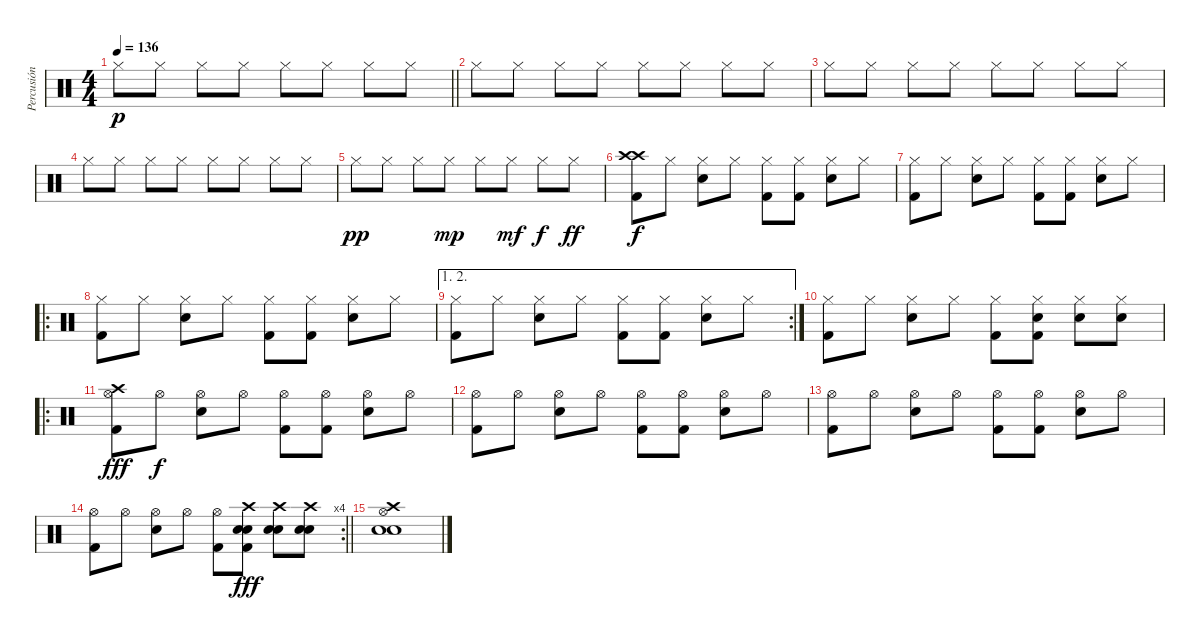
\track ("Percusión" "Percusión") {instrument percussion}
\staff {score}
\articulation defaults
\ts (4 4)
\tempo 136
\clef neutral
\barLineRight lightlight
\ks c "Hi-Hat (closed)".8{dy p} "Hi-Hat (closed)".8 "Hi-Hat (closed)".8 "Hi-Hat (closed)".8 "Hi-Hat (closed)".8 "Hi-Hat (closed)".8 "Hi-Hat (closed)".8 "Hi-Hat (closed)".8
|
"Hi-Hat (closed)".8 "Hi-Hat (closed)".8 "Hi-Hat (closed)".8 "Hi-Hat (closed)".8 "Hi-Hat (closed)".8 "Hi-Hat (closed)".8 "Hi-Hat (closed)".8 "Hi-Hat (closed)".8 |
"Hi-Hat (closed)".8 "Hi-Hat (closed)".8 "Hi-Hat (closed)".8 "Hi-Hat (closed)".8 "Hi-Hat (closed)".8 "Hi-Hat (closed)".8 "Hi-Hat (closed)".8 "Hi-Hat (closed)".8 |
"Hi-Hat (closed)".8 "Hi-Hat (closed)".8 "Hi-Hat (closed)".8 "Hi-Hat (closed)".8 "Hi-Hat (closed)".8 "Hi-Hat (closed)".8 "Hi-Hat (closed)".8 "Hi-Hat (closed)".8 |
"Hi-Hat (closed)".8{dy pp} "Hi-Hat (closed)".8 "Hi-Hat (closed)".8 "Hi-Hat (closed)".8{dy mp} "Hi-Hat (closed)".8 "Hi-Hat (closed)".8{dy mf} "Hi-Hat (closed)".8{dy f} "Hi-Hat (closed)".8{dy ff} |
("Crash high (hit)" "Crash high (hit)" "Kick (hit) 2").8{dy f} "Hi-Hat (closed)".8 ("Hi-Hat (closed)" "Snare (hit) 2").8 "Hi-Hat (closed)".8 ("Hi-Hat (closed)" "Kick (hit) 2").8 ("Hi-Hat (closed)" "Kick (hit) 2").8 ("Hi-Hat (closed)" "Snare (hit) 2").8 "Hi-Hat (closed)".8 |
("Hi-Hat (closed)" "Kick (hit) 2").8 "Hi-Hat (closed)".8 ("Hi-Hat (closed)" "Snare (hit) 2").8 "Hi-Hat (closed)".8 ("Hi-Hat (closed)" "Kick (hit) 2").8 ("Hi-Hat (closed)" "Kick (hit) 2").8 ("Hi-Hat (closed)" "Snare (hit) 2").8 "Hi-Hat (closed)".8 |
\ro
("Hi-Hat (closed)" "Kick (hit) 2").8 "Hi-Hat (closed)".8 ("Hi-Hat (closed)" "Snare (hit) 2").8 "Hi-Hat (closed)".8 ("Hi-Hat (closed)" "Kick (hit) 2").8 ("Hi-Hat (closed)" "Kick (hit) 2").8 ("Hi-Hat (closed)" "Snare (hit) 2").8 "Hi-Hat (closed)".8 |
\ae (1 2)
\rc 2
("Hi-Hat (closed)" "Kick (hit) 2").8 "Hi-Hat (closed)".8 ("Hi-Hat (closed)" "Snare (hit) 2").8 "Hi-Hat (closed)".8 ("Hi-Hat (closed)" "Kick (hit) 2").8 ("Hi-Hat (closed)" "Kick (hit) 2").8 ("Hi-Hat (closed)" "Snare (hit) 2").8 "Hi-Hat (closed)".8 |
("Hi-Hat (closed)" "Kick (hit) 2").8 "Hi-Hat (closed)".8 ("Hi-Hat (closed)" "Snare (hit) 2").8 "Hi-Hat (closed)".8 ("Hi-Hat (closed)" "Kick (hit) 2").8 ("Hi-Hat (closed)" "Snare (hit) 2" "Kick (hit) 2").8 ("Hi-Hat (closed)" "Snare (hit) 2").8 ("Hi-Hat (closed)" "Snare (hit) 2").8 |
\ro
("Crash high (hit)" "Hi-Hat (open)" "Kick (hit) 2").8{dy fff} "Hi-Hat (open)".8{dy f} ("Hi-Hat (open)" "Snare (hit) 2").8 "Hi-Hat (open)".8 ("Hi-Hat (open)" "Kick (hit) 2").8 ("Hi-Hat (open)" "Kick (hit) 2").8 ("Hi-Hat (open)" "Snare (hit) 2").8 "Hi-Hat (open)".8 |
("Hi-Hat (open)" "Kick (hit) 2").8 "Hi-Hat (open)".8 ("Hi-Hat (open)" "Snare (hit) 2").8 "Hi-Hat (open)".8 ("Hi-Hat (open)" "Kick (hit) 2").8 ("Hi-Hat (open)" "Kick (hit) 2").8 ("Hi-Hat (open)" "Snare (hit) 2").8 "Hi-Hat (open)".8 |
("Hi-Hat (open)" "Kick (hit) 2").8 "Hi-Hat (open)".8 ("Hi-Hat (open)" "Snare (hit) 2").8 "Hi-Hat (open)".8 ("Hi-Hat (open)" "Kick (hit) 2").8 ("Hi-Hat (open)" "Kick (hit) 2").8 ("Hi-Hat (open)" "Snare (hit) 2").8 "Hi-Hat (open)".8 |
\rc 4
\barLineRight lightlight
("Hi-Hat (open)" "Kick (hit) 2").8 "Hi-Hat (open)".8 ("Hi-Hat (open)" "Snare (hit) 2").8 "Hi-Hat (open)".8 ("Hi-Hat (open)" "Kick (hit) 2").8 ("Crash high (hit)" "Electric Snare (hit)" "Snare (hit) 2" "Kick (hit) 2").8{dy fff} ("Crash high (hit)" "Electric Snare (hit)" "Snare (hit) 2").8 ("Crash high (hit)" "Electric Snare (hit)" "Snare (hit) 2").8 |
("Hi-Hat (open)" "Crash high (hit)" "Snare (hit) 2" "Electric Snare (hit)").1
